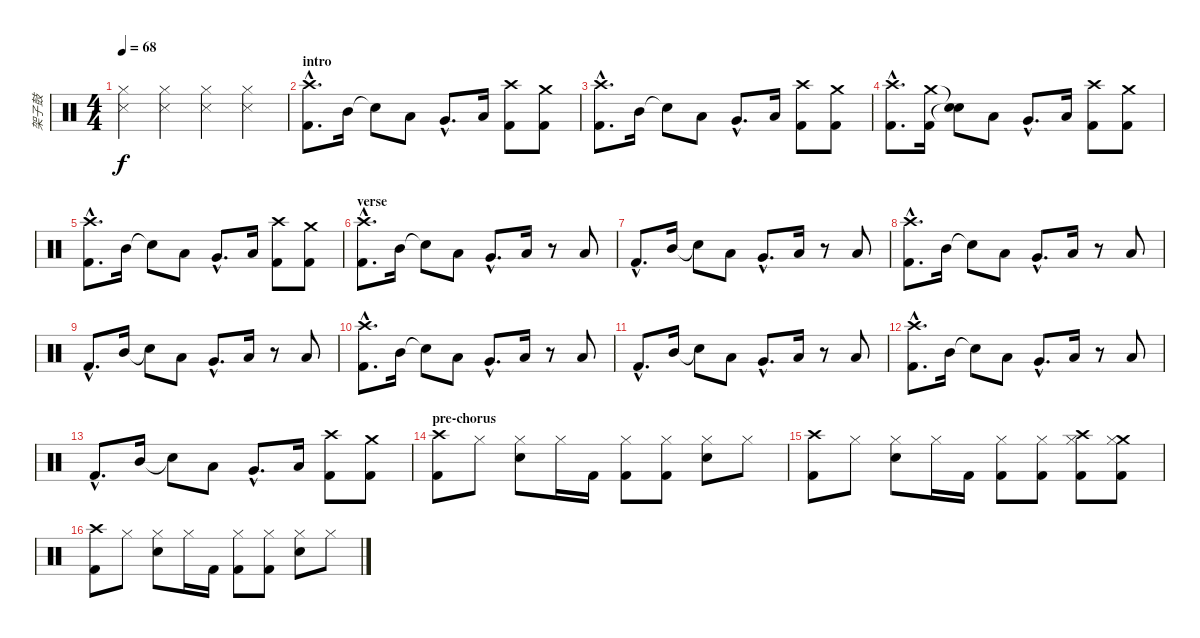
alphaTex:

\track ("架子鼓" "架子鼓") {instrument percussion}
\staff {score}
\articulation defaults
\ts (4 4)
\tempo 68
\clef neutral
\ks c
("Snare (side stick) 3" "Hi-Hat (closed)").4{dy f} ("Snare (side stick) 3" "Hi-Hat (closed)").4 ("Snare (side stick) 3" "Hi-Hat (closed)").4 ("Snare (side stick) 3" "Hi-Hat (closed)").4 |
\section ("" "intro")
("Crash high (hit)"{hac} "Kick (hit) 2"{hac}).8{d} "Mid Tom (hit)".16 "Snare (hit)"{t}.8 "Low Tom (hit)".8 "Very Low Tom (hit)"{hac}.8{d} "Low Floor Tom (hit)".16 ("Crash high (hit)" "Kick (hit) 2").8 ("Crash medium (hit)" "Kick (hit) 2").8 |
("Crash high (hit)"{hac} "Kick (hit) 2"{hac}).8{d} "Mid Tom (hit)".16 "Snare (hit)"{t}.8 "Low Tom (hit)".8 "Very Low Tom (hit)"{hac}.8{d} "Low Floor Tom (hit)".16 ("Crash high (hit)" "Kick (hit) 2").8 ("Crash medium (hit)" "Kick (hit) 2").8 |
("Crash high (hit)"{hac} "Kick (hit) 2"{hac}).8{d} ("Crash medium (hit)" "Kick (hit) 2").16 ("Snare (hit)"{t} "Snare (hit)"{t}).8 "Low Tom (hit)".8 "Very Low Tom (hit)"{hac}.8{d} "Low Floor Tom (hit)".16 ("Crash high (hit)" "Kick (hit) 2").8 ("Crash medium (hit)" "Kick (hit) 2").8 |
("Crash high (hit)"{hac} "Kick (hit) 2"{hac}).8{d} "Mid Tom (hit)".16 "Snare (hit)"{t}.8 "Low Tom (hit)".8 "Very Low Tom (hit)"{hac}.8{d} "Low Floor Tom (hit)".16 ("Crash high (hit)" "Kick (hit) 2").8 ("Crash medium (hit)" "Kick (hit) 2").8 |
\section ("" "verse")
("Crash high (hit)"{hac} "Kick (hit) 2"{hac}).8{d} "Mid Tom (hit)".16 "Snare (hit)"{t}.8 "Low Tom (hit)".8 "Very Low Tom (hit)"{hac}.8{d} "Low Floor Tom (hit)".16 r.8 "Low Floor Tom (hit)".8 |
"Kick (hit) 2"{hac}.8{d} "Mid Tom (hit)".16 "Snare (hit)"{t}.8 "Low Tom (hit)".8 "Very Low Tom (hit)"{hac}.8{d} "Low Floor Tom (hit)".16 r.8 "Low Floor Tom (hit)".8 |
("Crash high (hit)"{hac} "Kick (hit) 2"{hac}).8{d} "Mid Tom (hit)".16 "Snare (hit)"{t}.8 "Low Tom (hit)".8 "Very Low Tom (hit)"{hac}.8{d} "Low Floor Tom (hit)".16 r.8 "Low Floor Tom (hit)".8 |
"Kick (hit) 2"{hac}.8{d} "Mid Tom (hit)".16 "Snare (hit)"{t}.8 "Low Tom (hit)".8 "Very Low Tom (hit)"{hac}.8{d} "Low Floor Tom (hit)".16 r.8 "Low Floor Tom (hit)".8 |
("Crash high (hit)"{hac} "Kick (hit) 2"{hac}).8{d} "Mid Tom (hit)".16 "Snare (hit)"{t}.8 "Low Tom (hit)".8 "Very Low Tom (hit)"{hac}.8{d} "Low Floor Tom (hit)".16 r.8 "Low Floor Tom (hit)".8 |
"Kick (hit) 2"{hac}.8{d} "Mid Tom (hit)".16 "Snare (hit)"{t}.8 "Low Tom (hit)".8 "Very Low Tom (hit)"{hac}.8{d} "Low Floor Tom (hit)".16 r.8 "Low Floor Tom (hit)".8 |
("Crash high (hit)"{hac} "Kick (hit) 2"{hac}).8{d} "Mid Tom (hit)".16 "Snare (hit)"{t}.8 "Low Tom (hit)".8 "Very Low Tom (hit)"{hac}.8{d} "Low Floor Tom (hit)".16 r.8 "Low Floor Tom (hit)".8 |
"Kick (hit) 2"{hac}.8{d} "Mid Tom (hit)".16 "Snare (hit)"{t}.8 "Low Tom (hit)".8 "Very Low Tom (hit)"{hac}.8{d} "Low Floor Tom (hit)".16 ("Crash high (hit)" "Kick (hit) 2").8 ("Crash medium (hit)" "Kick (hit) 2").8 |
\section ("" "pre-chorus")
("Crash high (hit)" "Kick (hit) 2").8 "Hi-Hat (closed)".8 ("Hi-Hat (closed)" "Snare (hit) 2").8 "Hi-Hat (closed)".16 "Kick (hit) 2".16 ("Hi-Hat (closed)" "Kick (hit) 2").8 ("Hi-Hat (closed)" "Kick (hit) 2").8 ("Hi-Hat (closed)" "Snare (hit) 2").8 "Hi-Hat (closed)".8 |
("Crash high (hit)" "Kick (hit) 2").8 "Hi-Hat (closed)".8 ("Hi-Hat (closed)" "Snare (hit) 2").8 "Hi-Hat (closed)".16 "Kick (hit) 2".16 ("Hi-Hat (closed)" "Kick (hit) 2").8 ("Hi-Hat (closed)" "Kick (hit) 2").8 ("Crash high (hit)" "Hi-Hat (closed)" "Kick (hit) 2").8 ("Crash medium (hit)" "Hi-Hat (closed)" "Kick (hit) 2").8 |
("Crash high (hit)" "Kick (hit) 2").8 "Hi-Hat (closed)".8 ("Hi-Hat (closed)" "Snare (hit) 2").8 "Hi-Hat (closed)".16 "Kick (hit) 2".16 ("Hi-Hat (closed)" "Kick (hit) 2").8 ("Hi-Hat (closed)" "Kick (hit) 2").8 ("Hi-Hat (closed)" "Snare (hit) 2").8 "Hi-Hat (closed)".8
